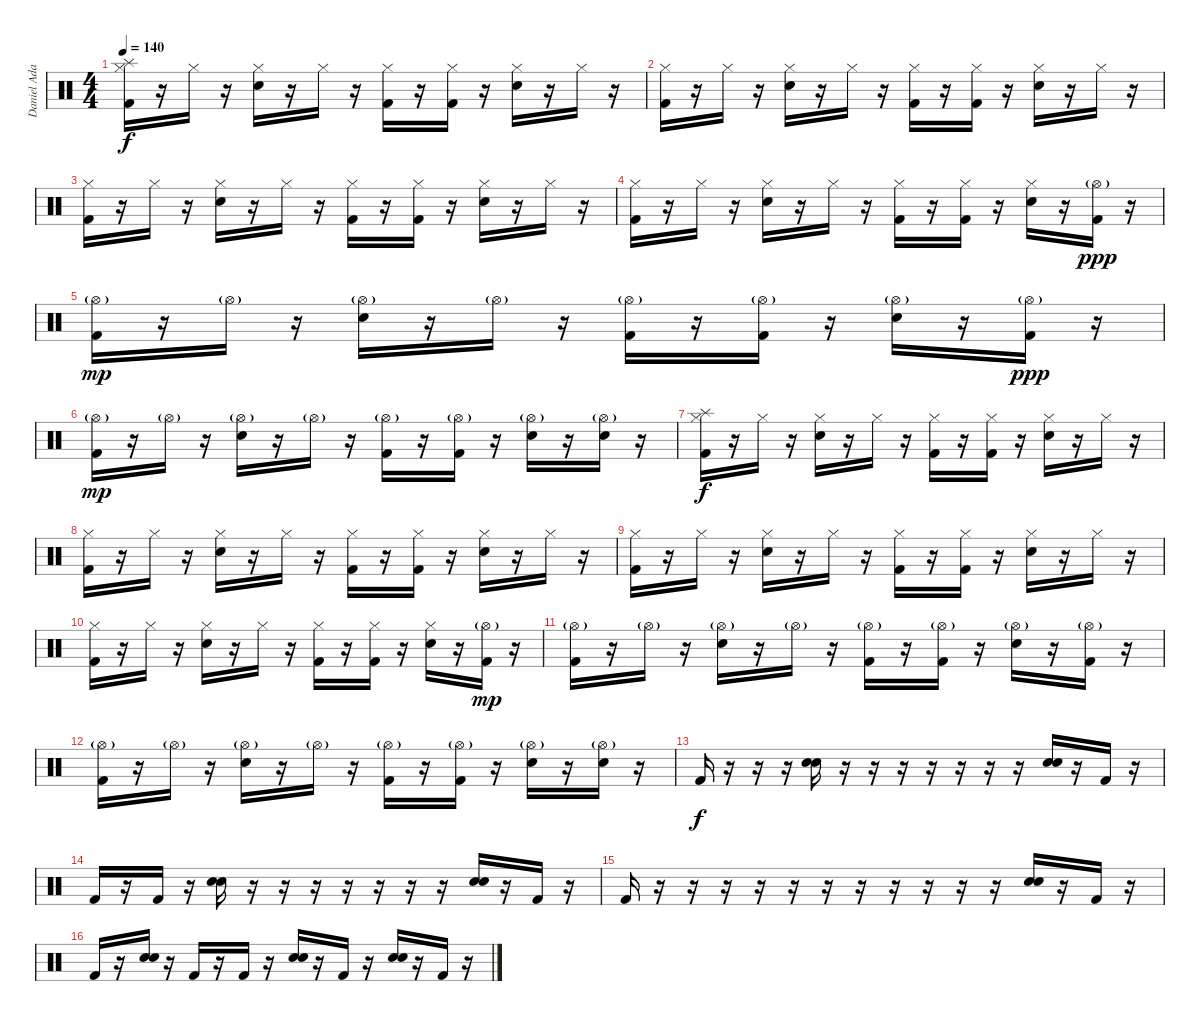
\track ("Daniel Adair" "Daniel Ada") {instrument percussion}
\staff {score}
\articulation defaults
\ts (4 4)
\tempo 140
\clef neutral
\ks c
("Splash (hit)" "Hi-Hat (closed)" "Kick (hit) 2").16{dy f} r.16 "Hi-Hat (closed)".16 r.16 ("Hi-Hat (closed)" "Snare (hit) 2").16 r.16 "Hi-Hat (closed)".16 r.16 ("Hi-Hat (closed)" "Kick (hit) 2").16 r.16 ("Hi-Hat (closed)" "Kick (hit) 2").16 r.16 ("Hi-Hat (closed)" "Snare (hit) 2").16 r.16 "Hi-Hat (closed)".16 r.16 |
("Hi-Hat (closed)" "Kick (hit) 2").16 r.16 "Hi-Hat (closed)".16 r.16 ("Hi-Hat (closed)" "Snare (hit) 2").16 r.16 "Hi-Hat (closed)".16 r.16 ("Hi-Hat (closed)" "Kick (hit) 2").16 r.16 ("Hi-Hat (closed)" "Kick (hit) 2").16 r.16 ("Hi-Hat (closed)" "Snare (hit) 2").16 r.16 "Hi-Hat (closed)".16 r.16 |
("Hi-Hat (closed)" "Kick (hit) 2").16 r.16 "Hi-Hat (closed)".16 r.16 ("Hi-Hat (closed)" "Snare (hit) 2").16 r.16 "Hi-Hat (closed)".16 r.16 ("Hi-Hat (closed)" "Kick (hit) 2").16 r.16 ("Hi-Hat (closed)" "Kick (hit) 2").16 r.16 ("Hi-Hat (closed)" "Snare (hit) 2").16 r.16 "Hi-Hat (closed)".16 r.16 |
("Hi-Hat (closed)" "Kick (hit) 2").16 r.16 "Hi-Hat (closed)".16 r.16 ("Hi-Hat (closed)" "Snare (hit) 2").16 r.16 "Hi-Hat (closed)".16 r.16 ("Hi-Hat (closed)" "Kick (hit) 2").16 r.16 ("Hi-Hat (closed)" "Kick (hit) 2").16 r.16 ("Hi-Hat (closed)" "Snare (hit) 2").16 r.16 ("Hi-Hat (open)"{g} "Kick (hit) 2").16{dy ppp} r.16 |
("Hi-Hat (open)"{g} "Kick (hit) 2").16{dy mp} r.16 "Hi-Hat (open)"{g}.16 r.16 ("Hi-Hat (open)"{g} "Snare (hit) 2").16 r.16 "Hi-Hat (open)"{g}.16 r.16 ("Hi-Hat (open)"{g} "Kick (hit) 2").16 r.16 ("Hi-Hat (open)"{g} "Kick (hit) 2").16 r.16 ("Hi-Hat (open)"{g} "Snare (hit) 2").16 r.16 ("Hi-Hat (open)"{g} "Kick (hit) 2").16{dy ppp} r.16 |
("Hi-Hat (open)"{g} "Kick (hit) 2").16{dy mp} r.16 "Hi-Hat (open)"{g}.16 r.16 ("Hi-Hat (open)"{g} "Snare (hit) 2").16 r.16 "Hi-Hat (open)"{g}.16 r.16 ("Hi-Hat (open)"{g} "Kick (hit) 2").16 r.16 ("Hi-Hat (open)"{g} "Kick (hit) 2").16 r.16 ("Hi-Hat (open)"{g} "Snare (hit) 2").16 r.16 ("Hi-Hat (open)"{g} "Snare (hit) 2").16 r.16 |
("Splash (hit)" "Hi-Hat (closed)" "Kick (hit) 2").16{dy f} r.16 "Hi-Hat (closed)".16 r.16 ("Hi-Hat (closed)" "Snare (hit) 2").16 r.16 "Hi-Hat (closed)".16 r.16 ("Hi-Hat (closed)" "Kick (hit) 2").16 r.16 ("Hi-Hat (closed)" "Kick (hit) 2").16 r.16 ("Hi-Hat (closed)" "Snare (hit) 2").16 r.16 "Hi-Hat (closed)".16 r.16 |
("Hi-Hat (closed)" "Kick (hit) 2").16 r.16 "Hi-Hat (closed)".16 r.16 ("Hi-Hat (closed)" "Snare (hit) 2").16 r.16 "Hi-Hat (closed)".16 r.16 ("Hi-Hat (closed)" "Kick (hit) 2").16 r.16 ("Hi-Hat (closed)" "Kick (hit) 2").16 r.16 ("Hi-Hat (closed)" "Snare (hit) 2").16 r.16 "Hi-Hat (closed)".16 r.16 |
("Hi-Hat (closed)" "Kick (hit) 2").16 r.16 "Hi-Hat (closed)".16 r.16 ("Hi-Hat (closed)" "Snare (hit) 2").16 r.16 "Hi-Hat (closed)".16 r.16 ("Hi-Hat (closed)" "Kick (hit) 2").16 r.16 ("Hi-Hat (closed)" "Kick (hit) 2").16 r.16 ("Hi-Hat (closed)" "Snare (hit) 2").16 r.16 "Hi-Hat (closed)".16 r.16 |
("Hi-Hat (closed)" "Kick (hit) 2").16 r.16 "Hi-Hat (closed)".16 r.16 ("Hi-Hat (closed)" "Snare (hit) 2").16 r.16 "Hi-Hat (closed)".16 r.16 ("Hi-Hat (closed)" "Kick (hit) 2").16 r.16 ("Hi-Hat (closed)" "Kick (hit) 2").16 r.16 ("Hi-Hat (closed)" "Snare (hit) 2").16 r.16 ("Hi-Hat (open)"{g} "Kick (hit) 2").16{dy mp} r.16 |
("Hi-Hat (open)"{g} "Kick (hit) 2").16 r.16 "Hi-Hat (open)"{g}.16 r.16 ("Hi-Hat (open)"{g} "Snare (hit) 2").16 r.16 "Hi-Hat (open)"{g}.16 r.16 ("Hi-Hat (open)"{g} "Kick (hit) 2").16 r.16 ("Hi-Hat (open)"{g} "Kick (hit) 2").16 r.16 ("Hi-Hat (open)"{g} "Snare (hit) 2").16 r.16 ("Hi-Hat (open)"{g} "Kick (hit) 2").16 r.16 |
("Hi-Hat (open)"{g} "Kick (hit) 2").16 r.16 "Hi-Hat (open)"{g}.16 r.16 ("Hi-Hat (open)"{g} "Snare (hit) 2").16 r.16 "Hi-Hat (open)"{g}.16 r.16 ("Hi-Hat (open)"{g} "Kick (hit) 2").16 r.16 ("Hi-Hat (open)"{g} "Kick (hit) 2").16 r.16 ("Hi-Hat (open)"{g} "Snare (hit) 2").16 r.16 ("Hi-Hat (open)"{g} "Snare (hit) 2").16 r.16 |
"Kick (hit) 2".16{dy f} r.16 r.16 r.16 ("Snare (hit) 2" "Snare (hit) 2").16 r.16 r.16 r.16 r.16 r.16 r.16 r.16 ("Snare (hit) 2" "Snare (hit) 2").16 r.16 "Kick (hit) 2".16 r.16 |
"Kick (hit) 2".16 r.16 "Kick (hit) 2".16 r.16 ("Snare (hit) 2" "Snare (hit) 2").16 r.16 r.16 r.16 r.16 r.16 r.16 r.16 ("Snare (hit) 2" "Snare (hit) 2").16 r.16 "Kick (hit) 2".16 r.16 |
"Kick (hit) 2".16 r.16 r.16 r.16 r.16 r.16 r.16 r.16 r.16 r.16 r.16 r.16 ("Snare (hit) 2" "Snare (hit) 2").16 r.16 "Kick (hit) 2".16 r.16 |
"Kick (hit) 2".16 r.16 ("Snare (hit) 2" "Snare (hit) 2").16 r.16 "Kick (hit) 2".16 r.16 "Kick (hit) 2".16 r.16 ("Snare (hit) 2" "Snare (hit) 2").16 r.16 "Kick (hit) 2".16 r.16 ("Snare (hit) 2" "Snare (hit) 2").16 r.16 "Kick (hit) 2".16 r.16
